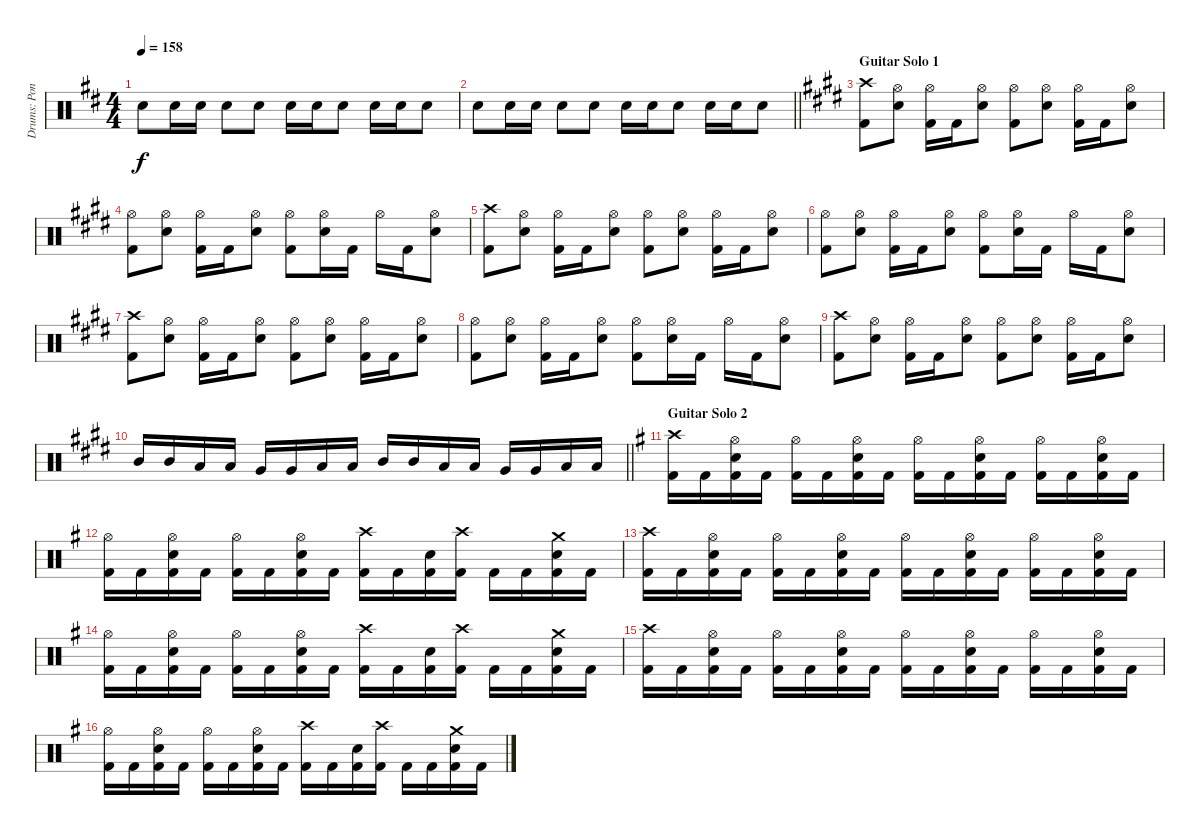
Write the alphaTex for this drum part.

\track ("Drums: Pontus Jansson" "Drums: Pon") {instrument percussion}
\staff {score}
\articulation defaults
\ts (4 4)
\tempo 158
\clef neutral
\ks bminor "Electric Snare (hit)".8{dy f} "Electric Snare (hit)".16 "Electric Snare (hit)".16 "Electric Snare (hit)".8 "Electric Snare (hit)".8 "Electric Snare (hit)".16 "Electric Snare (hit)".16 "Electric Snare (hit)".8 "Electric Snare (hit)".16 "Electric Snare (hit)".16 "Electric Snare (hit)".8
|
\barLineRight lightlight "Electric Snare (hit)".8 "Electric Snare (hit)".16 "Electric Snare (hit)".16 "Electric Snare (hit)".8 "Electric Snare (hit)".8 "Electric Snare (hit)".16 "Electric Snare (hit)".16 "Electric Snare (hit)".8 "Electric Snare (hit)".16 "Electric Snare (hit)".16 "Electric Snare (hit)".8
|
\section ("" "Guitar Solo 1")
\ks c#minor
("Crash high (hit)" "Kick (hit) 2").8 ("Hi-Hat (open)" "Electric Snare (hit)").8 ("Hi-Hat (open)" "Kick (hit) 2").16 "Kick (hit) 2".16 ("Hi-Hat (open)" "Electric Snare (hit)").8 ("Hi-Hat (open)" "Kick (hit) 2").8 ("Hi-Hat (open)" "Electric Snare (hit)").8 ("Hi-Hat (open)" "Kick (hit) 2").16 "Kick (hit) 2".16 ("Hi-Hat (open)" "Electric Snare (hit)").8 |
("Hi-Hat (open)" "Kick (hit) 2").8 ("Hi-Hat (open)" "Electric Snare (hit)").8 ("Hi-Hat (open)" "Kick (hit) 2").16 "Kick (hit) 2".16 ("Hi-Hat (open)" "Electric Snare (hit)").8 ("Hi-Hat (open)" "Kick (hit) 2").8 ("Hi-Hat (open)" "Electric Snare (hit)").16 "Kick (hit) 2".16 "Hi-Hat (open)".16 "Kick (hit) 2".16 ("Hi-Hat (open)" "Electric Snare (hit)").8 |
("Crash high (hit)" "Kick (hit) 2").8 ("Hi-Hat (open)" "Electric Snare (hit)").8 ("Hi-Hat (open)" "Kick (hit) 2").16 "Kick (hit) 2".16 ("Hi-Hat (open)" "Electric Snare (hit)").8 ("Hi-Hat (open)" "Kick (hit) 2").8 ("Hi-Hat (open)" "Electric Snare (hit)").8 ("Hi-Hat (open)" "Kick (hit) 2").16 "Kick (hit) 2".16 ("Hi-Hat (open)" "Electric Snare (hit)").8 |
("Hi-Hat (open)" "Kick (hit) 2").8 ("Hi-Hat (open)" "Electric Snare (hit)").8 ("Hi-Hat (open)" "Kick (hit) 2").16 "Kick (hit) 2".16 ("Hi-Hat (open)" "Electric Snare (hit)").8 ("Hi-Hat (open)" "Kick (hit) 2").8 ("Hi-Hat (open)" "Electric Snare (hit)").16 "Kick (hit) 2".16 "Hi-Hat (open)".16 "Kick (hit) 2".16 ("Hi-Hat (open)" "Electric Snare (hit)").8 |
("Crash high (hit)" "Kick (hit) 2").8 ("Hi-Hat (open)" "Electric Snare (hit)").8 ("Hi-Hat (open)" "Kick (hit) 2").16 "Kick (hit) 2".16 ("Hi-Hat (open)" "Electric Snare (hit)").8 ("Hi-Hat (open)" "Kick (hit) 2").8 ("Hi-Hat (open)" "Electric Snare (hit)").8 ("Hi-Hat (open)" "Kick (hit) 2").16 "Kick (hit) 2".16 ("Hi-Hat (open)" "Electric Snare (hit)").8 |
("Hi-Hat (open)" "Kick (hit) 2").8 ("Hi-Hat (open)" "Electric Snare (hit)").8 ("Hi-Hat (open)" "Kick (hit) 2").16 "Kick (hit) 2".16 ("Hi-Hat (open)" "Electric Snare (hit)").8 ("Hi-Hat (open)" "Kick (hit) 2").8 ("Hi-Hat (open)" "Electric Snare (hit)").16 "Kick (hit) 2".16 "Hi-Hat (open)".16 "Kick (hit) 2".16 ("Hi-Hat (open)" "Electric Snare (hit)").8 |
("Crash high (hit)" "Kick (hit) 2").8 ("Hi-Hat (open)" "Electric Snare (hit)").8 ("Hi-Hat (open)" "Kick (hit) 2").16 "Kick (hit) 2".16 ("Hi-Hat (open)" "Electric Snare (hit)").8 ("Hi-Hat (open)" "Kick (hit) 2").8 ("Hi-Hat (open)" "Electric Snare (hit)").8 ("Hi-Hat (open)" "Kick (hit) 2").16 "Kick (hit) 2".16 ("Hi-Hat (open)" "Electric Snare (hit)").8 |
\barLineRight lightlight "Mid Tom (hit)".16 "Mid Tom (hit)".16 "Low Tom (hit)".16 "Low Tom (hit)".16 "Very Low Tom (hit)".16 "Very Low Tom (hit)".16 "Low Tom (hit)".16 "Low Tom (hit)".16 "Mid Tom (hit)".16 "Mid Tom (hit)".16 "Low Tom (hit)".16 "Low Tom (hit)".16 "Very Low Tom (hit)".16 "Very Low Tom (hit)".16 "Low Floor Tom (hit)".16 "Low Floor Tom (hit)".16
|
\section ("" "Guitar Solo 2")
\ks eminor
("Crash high (hit)" "Kick (hit) 2").16 "Kick (hit) 2".16 ("Hi-Hat (open)" "Electric Snare (hit)" "Kick (hit) 2").16 "Kick (hit) 2".16 ("Hi-Hat (open)" "Kick (hit) 2").16 "Kick (hit) 2".16 ("Hi-Hat (open)" "Electric Snare (hit)" "Kick (hit) 2").16 "Kick (hit) 2".16 ("Hi-Hat (open)" "Kick (hit) 2").16 "Kick (hit) 2".16 ("Hi-Hat (open)" "Electric Snare (hit)" "Kick (hit) 2").16 "Kick (hit) 2".16 ("Hi-Hat (open)" "Kick (hit) 2").16 "Kick (hit) 2".16 ("Hi-Hat (open)" "Electric Snare (hit)" "Kick (hit) 2").16 "Kick (hit) 2".16 |
("Hi-Hat (open)" "Kick (hit) 2").16 "Kick (hit) 2".16 ("Hi-Hat (open)" "Electric Snare (hit)" "Kick (hit) 2").16 "Kick (hit) 2".16 ("Hi-Hat (open)" "Kick (hit) 2").16 "Kick (hit) 2".16 ("Hi-Hat (open)" "Electric Snare (hit)" "Kick (hit) 2").16 "Kick (hit) 2".16 ("Crash high (hit)" "Kick (hit) 2").16 "Kick (hit) 2".16 ("Electric Snare (hit)" "Kick (hit) 2").16 ("Crash high (hit)" "Kick (hit) 2").16 "Kick (hit) 2".16 "Kick (hit) 2".16 ("Crash medium (hit)" "Electric Snare (hit)" "Kick (hit) 2").16 "Kick (hit) 2".16 |
("Crash high (hit)" "Kick (hit) 2").16 "Kick (hit) 2".16 ("Hi-Hat (open)" "Electric Snare (hit)" "Kick (hit) 2").16 "Kick (hit) 2".16 ("Hi-Hat (open)" "Kick (hit) 2").16 "Kick (hit) 2".16 ("Hi-Hat (open)" "Electric Snare (hit)" "Kick (hit) 2").16 "Kick (hit) 2".16 ("Hi-Hat (open)" "Kick (hit) 2").16 "Kick (hit) 2".16 ("Hi-Hat (open)" "Electric Snare (hit)" "Kick (hit) 2").16 "Kick (hit) 2".16 ("Hi-Hat (open)" "Kick (hit) 2").16 "Kick (hit) 2".16 ("Hi-Hat (open)" "Electric Snare (hit)" "Kick (hit) 2").16 "Kick (hit) 2".16 |
("Hi-Hat (open)" "Kick (hit) 2").16 "Kick (hit) 2".16 ("Hi-Hat (open)" "Electric Snare (hit)" "Kick (hit) 2").16 "Kick (hit) 2".16 ("Hi-Hat (open)" "Kick (hit) 2").16 "Kick (hit) 2".16 ("Hi-Hat (open)" "Electric Snare (hit)" "Kick (hit) 2").16 "Kick (hit) 2".16 ("Crash high (hit)" "Kick (hit) 2").16 "Kick (hit) 2".16 ("Electric Snare (hit)" "Kick (hit) 2").16 ("Crash high (hit)" "Kick (hit) 2").16 "Kick (hit) 2".16 "Kick (hit) 2".16 ("Crash medium (hit)" "Electric Snare (hit)" "Kick (hit) 2").16 "Kick (hit) 2".16 |
("Crash high (hit)" "Kick (hit) 2").16 "Kick (hit) 2".16 ("Hi-Hat (open)" "Electric Snare (hit)" "Kick (hit) 2").16 "Kick (hit) 2".16 ("Hi-Hat (open)" "Kick (hit) 2").16 "Kick (hit) 2".16 ("Hi-Hat (open)" "Electric Snare (hit)" "Kick (hit) 2").16 "Kick (hit) 2".16 ("Hi-Hat (open)" "Kick (hit) 2").16 "Kick (hit) 2".16 ("Hi-Hat (open)" "Electric Snare (hit)" "Kick (hit) 2").16 "Kick (hit) 2".16 ("Hi-Hat (open)" "Kick (hit) 2").16 "Kick (hit) 2".16 ("Hi-Hat (open)" "Electric Snare (hit)" "Kick (hit) 2").16 "Kick (hit) 2".16 |
("Hi-Hat (open)" "Kick (hit) 2").16 "Kick (hit) 2".16 ("Hi-Hat (open)" "Electric Snare (hit)" "Kick (hit) 2").16 "Kick (hit) 2".16 ("Hi-Hat (open)" "Kick (hit) 2").16 "Kick (hit) 2".16 ("Hi-Hat (open)" "Electric Snare (hit)" "Kick (hit) 2").16 "Kick (hit) 2".16 ("Crash high (hit)" "Kick (hit) 2").16 "Kick (hit) 2".16 ("Electric Snare (hit)" "Kick (hit) 2").16 ("Crash high (hit)" "Kick (hit) 2").16 "Kick (hit) 2".16 "Kick (hit) 2".16 ("Crash medium (hit)" "Electric Snare (hit)" "Kick (hit) 2").16 "Kick (hit) 2".16
